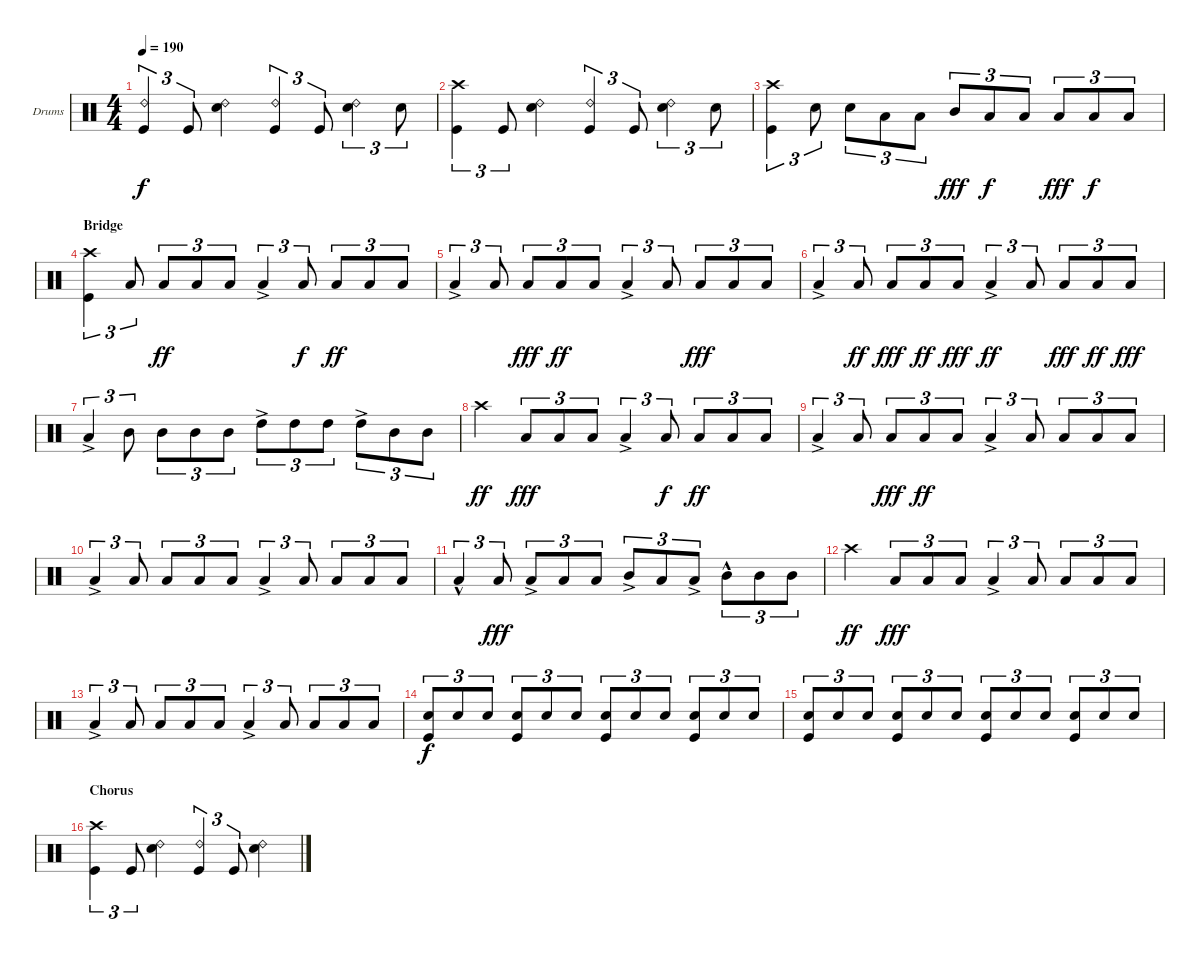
\bracketExtendMode groupsimilarinstruments
\firstSystemTrackNameOrientation horizontal
\otherSystemsTrackNameOrientation horizontal
\track ("Drums" "Drums") {instrument percussion}
\staff {score}
\articulation defaults
\ts (4 4)
\tempo 190
\clef neutral
\ks c
("Kick (hit)" "Ride (bell) 2").4{tu (3 2) dy f} "Kick (hit)".8{tu (3 2)} ("Snare (hit) 2" "Ride (bell) 2").4 ("Ride (bell) 2" "Kick (hit)").4{tu (3 2)} "Kick (hit)".8{tu (3 2)} ("Snare (hit) 2" "Ride (bell) 2").4{tu (3 2)} "Snare (hit) 2".8{tu (3 2)} |
("Kick (hit)" "Crash high (hit)").4{tu (3 2)} "Kick (hit)".8{tu (3 2)} ("Snare (hit) 2" "Ride (bell) 2").4 ("Kick (hit)" "Ride (bell) 2").4{tu (3 2)} "Kick (hit)".8{tu (3 2)} ("Snare (hit) 2" "Ride (bell) 2").4{tu (3 2)} "Snare (hit) 2".8{tu (3 2)} |
("Kick (hit)" "Crash high (hit)").4{tu (3 2)} "Snare (hit) 2".8{tu (3 2)} "Snare (hit) 2".8{tu (3 2)} "Low Tom (hit)".8{tu (3 2)} "Low Tom (hit)".8{tu (3 2)} "Mid Tom (hit)".8{tu (3 2) dy fff} "Low Tom (hit)".8{tu (3 2) dy f} "Low Tom (hit)".8{tu (3 2)} "Low Tom (hit)".8{tu (3 2) dy fff} "Low Tom (hit)".8{tu (3 2) dy f} "Low Tom (hit)".8{tu (3 2)} |
\section ("" "Bridge")
("Kick (hit)" "Crash high (hit)").4{tu (3 2)} "Low Tom (hit)".8{tu (3 2)} "Low Tom (hit)".8{tu (3 2) dy ff} "Low Tom (hit)".8{tu (3 2)} "Low Tom (hit)".8{tu (3 2)} "Low Tom (hit)"{ac}.4{tu (3 2)} "Low Tom (hit)".8{tu (3 2) dy f} "Low Tom (hit)".8{tu (3 2) dy ff} "Low Tom (hit)".8{tu (3 2)} "Low Tom (hit)".8{tu (3 2)} |
"Low Tom (hit)"{ac}.4{tu (3 2)} "Low Tom (hit)".8{tu (3 2)} "Low Tom (hit)".8{tu (3 2) dy fff} "Low Tom (hit)".8{tu (3 2) dy ff} "Low Tom (hit)".8{tu (3 2)} "Low Tom (hit)"{ac}.4{tu (3 2)} "Low Tom (hit)".8{tu (3 2)} "Low Tom (hit)".8{tu (3 2) dy fff} "Low Tom (hit)".8{tu (3 2)} "Low Tom (hit)".8{tu (3 2)} |
"Low Tom (hit)"{ac}.4{tu (3 2)} "Low Tom (hit)".8{tu (3 2) dy ff} "Low Tom (hit)".8{tu (3 2) dy fff} "Low Tom (hit)".8{tu (3 2) dy ff} "Low Tom (hit)".8{tu (3 2) dy fff} "Low Tom (hit)"{ac}.4{tu (3 2) dy ff} "Low Tom (hit)".8{tu (3 2)} "Low Tom (hit)".8{tu (3 2) dy fff} "Low Tom (hit)".8{tu (3 2) dy ff} "Low Tom (hit)".8{tu (3 2) dy fff} |
"Low Tom (hit)"{ac}.4{tu (3 2)} "Mid Tom (hit)".8{tu (3 2)} "Mid Tom (hit)".8{tu (3 2)} "Mid Tom (hit)".8{tu (3 2)} "Mid Tom (hit)".8{tu (3 2)} "High Tom (hit)"{ac}.8{tu (3 2)} "High Tom (hit)".8{tu (3 2)} "High Tom (hit)".8{tu (3 2)} "High Tom (hit)"{ac}.8{tu (3 2)} "Mid Tom (hit)".8{tu (3 2)} "Mid Tom (hit)".8{tu (3 2)} |
"Crash high (hit)".4{dy ff} "Low Tom (hit)".8{tu (3 2) dy fff} "Low Tom (hit)".8{tu (3 2)} "Low Tom (hit)".8{tu (3 2)} "Low Tom (hit)"{ac}.4{tu (3 2)} "Low Tom (hit)".8{tu (3 2) dy f} "Low Tom (hit)".8{tu (3 2) dy ff} "Low Tom (hit)".8{tu (3 2)} "Low Tom (hit)".8{tu (3 2)} |
"Low Tom (hit)"{ac}.4{tu (3 2)} "Low Tom (hit)".8{tu (3 2)} "Low Tom (hit)".8{tu (3 2) dy fff} "Low Tom (hit)".8{tu (3 2) dy ff} "Low Tom (hit)".8{tu (3 2)} "Low Tom (hit)"{ac}.4{tu (3 2)} "Low Tom (hit)".8{tu (3 2)} "Low Tom (hit)".8{tu (3 2)} "Low Tom (hit)".8{tu (3 2)} "Low Tom (hit)".8{tu (3 2)} |
"Low Tom (hit)"{ac}.4{tu (3 2)} "Low Tom (hit)".8{tu (3 2)} "Low Tom (hit)".8{tu (3 2)} "Low Tom (hit)".8{tu (3 2)} "Low Tom (hit)".8{tu (3 2)} "Low Tom (hit)"{ac}.4{tu (3 2)} "Low Tom (hit)".8{tu (3 2)} "Low Tom (hit)".8{tu (3 2)} "Low Tom (hit)".8{tu (3 2)} "Low Tom (hit)".8{tu (3 2)} |
"Low Tom (hit)"{hac}.4{tu (3 2)} "Low Tom (hit)".8{tu (3 2) dy fff} "Low Tom (hit)"{ac}.8{tu (3 2)} "Low Tom (hit)".8{tu (3 2)} "Low Tom (hit)".8{tu (3 2)} "Mid Tom (hit)"{ac}.8{tu (3 2)} "Low Tom (hit)".8{tu (3 2)} "Low Tom (hit)"{ac}.8{tu (3 2)} "Mid Tom (hit)"{hac}.8{tu (3 2)} "Mid Tom (hit)".8{tu (3 2)} "Mid Tom (hit)".8{tu (3 2)} |
"Crash high (hit)".4{dy ff} "Low Tom (hit)".8{tu (3 2) dy fff} "Low Tom (hit)".8{tu (3 2)} "Low Tom (hit)".8{tu (3 2)} "Low Tom (hit)"{ac}.4{tu (3 2)} "Low Tom (hit)".8{tu (3 2)} "Low Tom (hit)".8{tu (3 2)} "Low Tom (hit)".8{tu (3 2)} "Low Tom (hit)".8{tu (3 2)} |
"Low Tom (hit)"{ac}.4{tu (3 2)} "Low Tom (hit)".8{tu (3 2)} "Low Tom (hit)".8{tu (3 2)} "Low Tom (hit)".8{tu (3 2)} "Low Tom (hit)".8{tu (3 2)} "Low Tom (hit)"{ac}.4{tu (3 2)} "Low Tom (hit)".8{tu (3 2)} "Low Tom (hit)".8{tu (3 2)} "Low Tom (hit)".8{tu (3 2)} "Low Tom (hit)".8{tu (3 2)} |
("Snare (hit) 2" "Kick (hit)").8{tu (3 2) dy f} "Snare (hit) 2".8{tu (3 2)} "Snare (hit) 2".8{tu (3 2)} ("Snare (hit) 2" "Kick (hit)").8{tu (3 2)} "Snare (hit) 2".8{tu (3 2)} "Snare (hit) 2".8{tu (3 2)} ("Snare (hit) 2" "Kick (hit)").8{tu (3 2)} "Snare (hit) 2".8{tu (3 2)} "Snare (hit) 2".8{tu (3 2)} ("Snare (hit) 2" "Kick (hit)").8{tu (3 2)} "Snare (hit) 2".8{tu (3 2)} "Snare (hit) 2".8{tu (3 2)} |
("Snare (hit) 2" "Kick (hit)").8{tu (3 2)} "Snare (hit) 2".8{tu (3 2)} "Snare (hit) 2".8{tu (3 2)} ("Snare (hit) 2" "Kick (hit)").8{tu (3 2)} "Snare (hit) 2".8{tu (3 2)} "Snare (hit) 2".8{tu (3 2)} ("Snare (hit) 2" "Kick (hit)").8{tu (3 2)} "Snare (hit) 2".8{tu (3 2)} "Snare (hit) 2".8{tu (3 2)} ("Snare (hit) 2" "Kick (hit)").8{tu (3 2)} "Snare (hit) 2".8{tu (3 2)} "Snare (hit) 2".8{tu (3 2)} |
\section ("" "Chorus")
("Kick (hit)" "Crash high (hit)").4{tu (3 2)} "Kick (hit)".8{tu (3 2)} ("Snare (hit) 2" "Ride (bell) 2").4 ("Kick (hit)" "Ride (bell) 2").4{tu (3 2)} "Kick (hit)".8{tu (3 2)} ("Snare (hit) 2" "Ride (bell) 2").4
